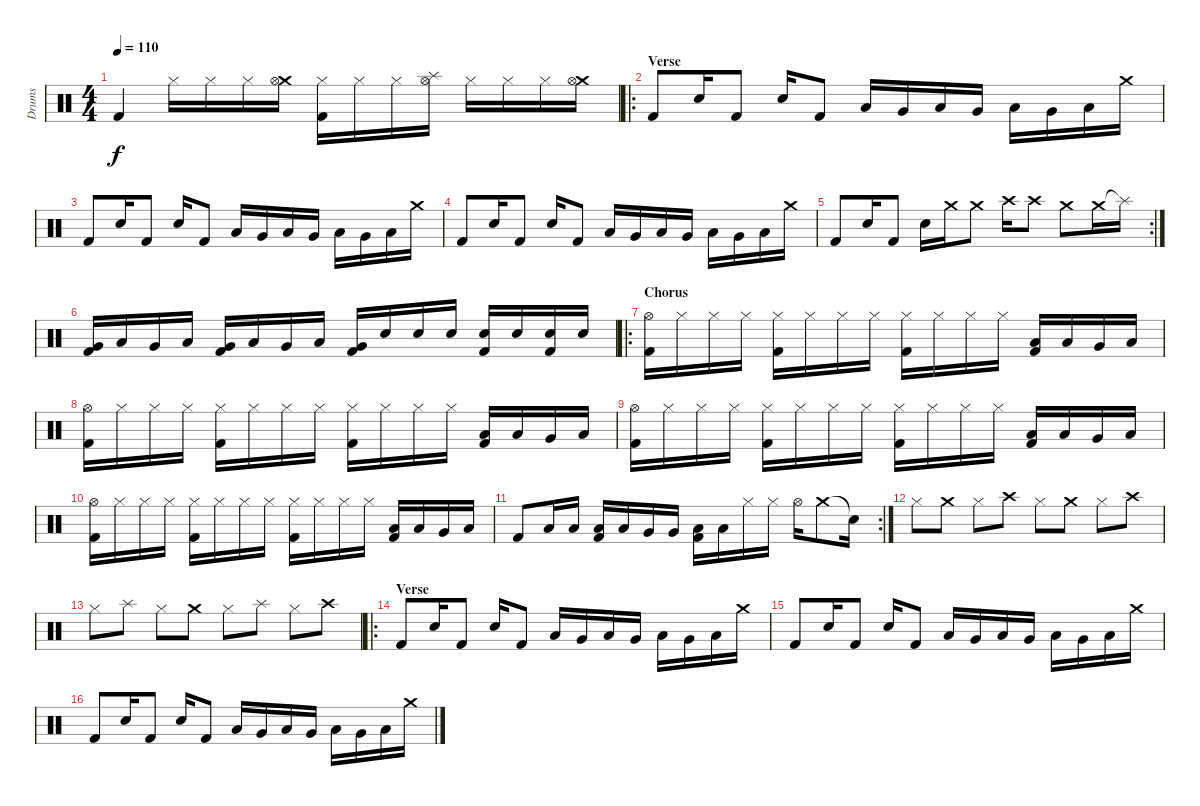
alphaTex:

\track ("Drums" "Drums") {instrument percussion}
\staff {score}
\articulation defaults
\ts (4 4)
\tempo 110
\clef neutral
\ks c "Kick (hit) 2".4{dy f} "Hi-Hat (closed)".16 "Hi-Hat (closed)".16 "Hi-Hat (closed)".16
("Crash medium (hit)" "Hi-Hat (open)").16 ("Hi-Hat (closed)" "Kick (hit) 2").16 "Hi-Hat (closed)".16 "Hi-Hat (closed)".16 ("Splash (hit)" "Hi-Hat (open)").16 "Hi-Hat (closed)".16 "Hi-Hat (closed)".16 "Hi-Hat (closed)".16 ("Crash medium (hit)" "Hi-Hat (open)").16 |
\ro
\section ("" "Verse")
"Kick (hit) 2".8 "Snare (hit) 2".16 "Kick (hit) 2".8 "Snare (hit) 2".16 "Kick (hit) 2".8 "Low Tom (hit)".16 "Very Low Tom (hit)".16 "Low Floor Tom (hit)".16 "Very Low Tom (hit)".16 "Low Floor Tom (hit)".16 "Very Low Tom (hit)".16 "Low Tom (hit)".16 "Crash medium (hit)".16 |
"Kick (hit) 2".8 "Snare (hit) 2".16 "Kick (hit) 2".8 "Snare (hit) 2".16 "Kick (hit) 2".8 "Low Tom (hit)".16 "Very Low Tom (hit)".16 "Low Floor Tom (hit)".16 "Very Low Tom (hit)".16 "Low Floor Tom (hit)".16 "Very Low Tom (hit)".16 "Low Tom (hit)".16 "Crash medium (hit)".16 |
"Kick (hit) 2".8 "Snare (hit) 2".16 "Kick (hit) 2".8 "Snare (hit) 2".16 "Kick (hit) 2".8 "Low Tom (hit)".16 "Very Low Tom (hit)".16 "Low Floor Tom (hit)".16 "Very Low Tom (hit)".16 "Low Floor Tom (hit)".16 "Very Low Tom (hit)".16 "Low Tom (hit)".16 "Crash medium (hit)".16 |
\rc 2 "Kick (hit) 2".8 "Snare (hit) 2".16 "Kick (hit) 2".8 "Snare (hit) 2".16 "Crash medium (hit)".16 "Crash medium (hit)".8 "Crash high (hit)".16 "Crash high (hit)".8 "Crash medium (hit)".8 "Crash medium (hit)".16 "Splash (hit)"{t}.16
|
("Very Low Tom (hit)" "Kick (hit) 2").16 "Low Tom (hit)".16 "Very Low Tom (hit)".16 "Low Floor Tom (hit)".16 ("Very Low Tom (hit)" "Kick (hit) 2").16 "Low Tom (hit)".16 "Very Low Tom (hit)".16 "Low Floor Tom (hit)".16 ("Very Low Tom (hit)" "Kick (hit) 2").16 "Snare (hit) 2".16 "Snare (hit) 2".16 "Snare (hit) 2".16 ("Snare (hit) 2" "Kick (hit) 2").16 "Snare (hit) 2".16 ("Snare (hit) 2" "Kick (hit) 2").16 "Snare (hit) 2".16 |
\ro
\section ("" "Chorus")
("Hi-Hat (open)" "Kick (hit) 2").16 "Hi-Hat (closed)".16 "Hi-Hat (closed)".16 "Hi-Hat (closed)".16 ("Hi-Hat (closed)" "Kick (hit) 2").16 "Hi-Hat (closed)".16 "Hi-Hat (closed)".16 "Hi-Hat (closed)".16 ("Hi-Hat (closed)" "Kick (hit) 2").16 "Hi-Hat (closed)".16 "Hi-Hat (closed)".16 "Hi-Hat (closed)".16 ("Low Floor Tom (hit)" "Kick (hit) 2").16 "Low Tom (hit)".16 "Very Low Tom (hit)".16 "Low Floor Tom (hit)".16 |
("Hi-Hat (open)" "Kick (hit) 2").16 "Hi-Hat (closed)".16 "Hi-Hat (closed)".16 "Hi-Hat (closed)".16 ("Hi-Hat (closed)" "Kick (hit) 2").16 "Hi-Hat (closed)".16 "Hi-Hat (closed)".16 "Hi-Hat (closed)".16 ("Hi-Hat (closed)" "Kick (hit) 2").16 "Hi-Hat (closed)".16 "Hi-Hat (closed)".16 "Hi-Hat (closed)".16 ("Low Floor Tom (hit)" "Kick (hit) 2").16 "Low Tom (hit)".16 "Very Low Tom (hit)".16 "Low Floor Tom (hit)".16 |
("Hi-Hat (open)" "Kick (hit) 2").16 "Hi-Hat (closed)".16 "Hi-Hat (closed)".16 "Hi-Hat (closed)".16 ("Hi-Hat (closed)" "Kick (hit) 2").16 "Hi-Hat (closed)".16 "Hi-Hat (closed)".16 "Hi-Hat (closed)".16 ("Hi-Hat (closed)" "Kick (hit) 2").16 "Hi-Hat (closed)".16 "Hi-Hat (closed)".16 "Hi-Hat (closed)".16 ("Low Floor Tom (hit)" "Kick (hit) 2").16 "Low Tom (hit)".16 "Very Low Tom (hit)".16 "Low Floor Tom (hit)".16 |
("Hi-Hat (open)" "Kick (hit) 2").16 "Hi-Hat (closed)".16 "Hi-Hat (closed)".16 "Hi-Hat (closed)".16 ("Hi-Hat (closed)" "Kick (hit) 2").16 "Hi-Hat (closed)".16 "Hi-Hat (closed)".16 "Hi-Hat (closed)".16 ("Hi-Hat (closed)" "Kick (hit) 2").16 "Hi-Hat (closed)".16 "Hi-Hat (closed)".16 "Hi-Hat (closed)".16 ("Low Floor Tom (hit)" "Kick (hit) 2").16 "Low Tom (hit)".16 "Very Low Tom (hit)".16 "Low Floor Tom (hit)".16 |
\rc 2 "Kick (hit) 2".8 "Low Floor Tom (hit)".16 "Low Floor Tom (hit)".16
("Low Tom (hit)" "Kick (hit) 2").16 "Low Tom (hit)".16 "Very Low Tom (hit)".16 "Very Low Tom (hit)".16 ("Low Floor Tom (hit)" "Kick (hit) 2").16 "Low Floor Tom (hit)".16 "Hi-Hat (closed)".16 "Hi-Hat (closed)".16 "Hi-Hat (open)".16 "Crash medium (hit)".8 "Snare (hit)"{t}.16 |
"Hi-Hat (closed)".8 "Crash medium (hit)".8 "Hi-Hat (closed)".8 "Crash high (hit)".8 "Hi-Hat (closed)".8 "Crash medium (hit)".8 "Hi-Hat (closed)".8 "Crash high (hit)".8 |
"Hi-Hat (closed)".8 "Splash (hit)".8 "Hi-Hat (closed)".8 "Crash medium (hit)".8 "Hi-Hat (closed)".8 "Splash (hit)".8 "Hi-Hat (closed)".8 "Crash high (hit)".8 |
\ro
\section ("" "Verse")
"Kick (hit) 2".8 "Snare (hit) 2".16 "Kick (hit) 2".8 "Snare (hit) 2".16 "Kick (hit) 2".8 "Low Tom (hit)".16 "Very Low Tom (hit)".16 "Low Floor Tom (hit)".16 "Very Low Tom (hit)".16 "Low Floor Tom (hit)".16 "Very Low Tom (hit)".16 "Low Tom (hit)".16 "Crash medium (hit)".16 |
"Kick (hit) 2".8 "Snare (hit) 2".16 "Kick (hit) 2".8 "Snare (hit) 2".16 "Kick (hit) 2".8 "Low Tom (hit)".16 "Very Low Tom (hit)".16 "Low Floor Tom (hit)".16 "Very Low Tom (hit)".16 "Low Floor Tom (hit)".16 "Very Low Tom (hit)".16 "Low Tom (hit)".16 "Crash medium (hit)".16 |
"Kick (hit) 2".8 "Snare (hit) 2".16 "Kick (hit) 2".8 "Snare (hit) 2".16 "Kick (hit) 2".8 "Low Tom (hit)".16 "Very Low Tom (hit)".16 "Low Floor Tom (hit)".16 "Very Low Tom (hit)".16 "Low Floor Tom (hit)".16 "Very Low Tom (hit)".16 "Low Tom (hit)".16 "Crash medium (hit)".16
